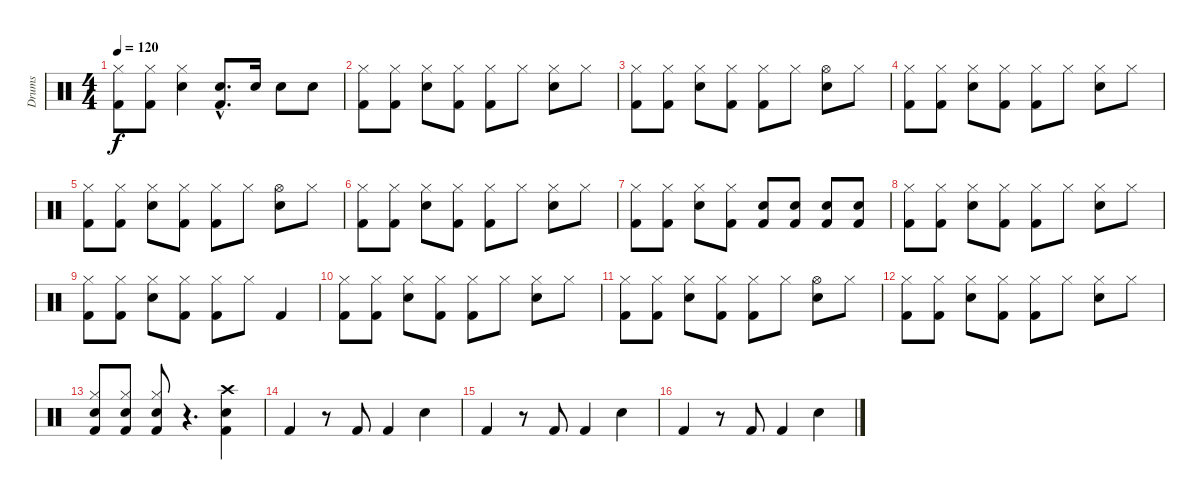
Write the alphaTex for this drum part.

\track ("Drums " "Drums ") {instrument percussion}
\staff {score}
\articulation defaults
\ts (4 4)
\tempo 120
\clef neutral
\ks c
("Kick (hit) 2" "Hi-Hat (closed)").8{dy f} ("Kick (hit) 2" "Hi-Hat (closed)").8 ("Electric Snare (hit)" "Hi-Hat (closed)").4 ("Kick (hit) 2"{hac} "Electric Snare (hit)"{hac}).8{d} "Electric Snare (hit)".16 "Electric Snare (hit)".8 "Electric Snare (hit)".8 |
("Kick (hit) 2" "Hi-Hat (closed)").8 ("Kick (hit) 2" "Hi-Hat (closed)").8 ("Electric Snare (hit)" "Hi-Hat (closed)").8 ("Kick (hit) 2" "Hi-Hat (closed)").8 ("Kick (hit) 2" "Hi-Hat (closed)").8 "Hi-Hat (closed)".8 ("Electric Snare (hit)" "Hi-Hat (closed)").8 "Hi-Hat (closed)".8 |
("Kick (hit) 2" "Hi-Hat (closed)").8 ("Kick (hit) 2" "Hi-Hat (closed)").8 ("Electric Snare (hit)" "Hi-Hat (closed)").8 ("Kick (hit) 2" "Hi-Hat (closed)").8 ("Kick (hit) 2" "Hi-Hat (closed)").8 "Hi-Hat (closed)".8 ("Electric Snare (hit)" "Hi-Hat (open)").8 "Hi-Hat (closed)".8 |
("Kick (hit) 2" "Hi-Hat (closed)").8 ("Kick (hit) 2" "Hi-Hat (closed)").8 ("Electric Snare (hit)" "Hi-Hat (closed)").8 ("Kick (hit) 2" "Hi-Hat (closed)").8 ("Kick (hit) 2" "Hi-Hat (closed)").8 "Hi-Hat (closed)".8 ("Electric Snare (hit)" "Hi-Hat (closed)").8 "Hi-Hat (closed)".8 |
("Kick (hit) 2" "Hi-Hat (closed)").8 ("Kick (hit) 2" "Hi-Hat (closed)").8 ("Electric Snare (hit)" "Hi-Hat (closed)").8 ("Kick (hit) 2" "Hi-Hat (closed)").8 ("Kick (hit) 2" "Hi-Hat (closed)").8 "Hi-Hat (closed)".8 ("Electric Snare (hit)" "Hi-Hat (open)").8 "Hi-Hat (closed)".8 |
("Kick (hit) 2" "Hi-Hat (closed)").8 ("Kick (hit) 2" "Hi-Hat (closed)").8 ("Electric Snare (hit)" "Hi-Hat (closed)").8 ("Kick (hit) 2" "Hi-Hat (closed)").8 ("Kick (hit) 2" "Hi-Hat (closed)").8 "Hi-Hat (closed)".8 ("Electric Snare (hit)" "Hi-Hat (closed)").8 "Hi-Hat (closed)".8 |
("Hi-Hat (closed)" "Kick (hit) 2").8 ("Hi-Hat (closed)" "Kick (hit) 2").8 ("Hi-Hat (closed)" "Electric Snare (hit)").8 ("Hi-Hat (closed)" "Kick (hit) 2").8 ("Electric Snare (hit)" "Kick (hit) 2").8 ("Electric Snare (hit)" "Kick (hit) 2").8 ("Electric Snare (hit)" "Kick (hit) 2").8 ("Electric Snare (hit)" "Kick (hit) 2").8 |
("Kick (hit) 2" "Hi-Hat (closed)").8 ("Kick (hit) 2" "Hi-Hat (closed)").8 ("Electric Snare (hit)" "Hi-Hat (closed)").8 ("Kick (hit) 2" "Hi-Hat (closed)").8 ("Kick (hit) 2" "Hi-Hat (closed)").8 "Hi-Hat (closed)".8 ("Electric Snare (hit)" "Hi-Hat (closed)").8 "Hi-Hat (closed)".8 |
("Kick (hit) 2" "Hi-Hat (closed)").8 ("Kick (hit) 2" "Hi-Hat (closed)").8 ("Electric Snare (hit)" "Hi-Hat (closed)").8 ("Kick (hit) 2" "Hi-Hat (closed)").8 ("Kick (hit) 2" "Hi-Hat (closed)").8 "Hi-Hat (closed)".8 "Kick (hit) 2".4 |
("Kick (hit) 2" "Hi-Hat (closed)").8 ("Kick (hit) 2" "Hi-Hat (closed)").8 ("Electric Snare (hit)" "Hi-Hat (closed)").8 ("Kick (hit) 2" "Hi-Hat (closed)").8 ("Kick (hit) 2" "Hi-Hat (closed)").8 "Hi-Hat (closed)".8 ("Electric Snare (hit)" "Hi-Hat (closed)").8 "Hi-Hat (closed)".8 |
("Kick (hit) 2" "Hi-Hat (closed)").8 ("Kick (hit) 2" "Hi-Hat (closed)").8 ("Electric Snare (hit)" "Hi-Hat (closed)").8 ("Kick (hit) 2" "Hi-Hat (closed)").8 ("Kick (hit) 2" "Hi-Hat (closed)").8 "Hi-Hat (closed)".8 ("Electric Snare (hit)" "Hi-Hat (open)").8 "Hi-Hat (closed)".8 |
("Kick (hit) 2" "Hi-Hat (closed)").8 ("Kick (hit) 2" "Hi-Hat (closed)").8 ("Electric Snare (hit)" "Hi-Hat (closed)").8 ("Kick (hit) 2" "Hi-Hat (closed)").8 ("Kick (hit) 2" "Hi-Hat (closed)").8 "Hi-Hat (closed)".8 ("Electric Snare (hit)" "Hi-Hat (closed)").8 "Hi-Hat (closed)".8 |
("Kick (hit) 2" "Electric Snare (hit)" "Hi-Hat (closed)").8 ("Kick (hit) 2" "Electric Snare (hit)" "Hi-Hat (closed)").8 ("Kick (hit) 2" "Electric Snare (hit)" "Hi-Hat (closed)").8 r.4{d} ("Crash high (hit)" "Kick (hit) 2" "Electric Snare (hit)").4 |
"Kick (hit) 2".4 r.8 "Kick (hit) 2".8 "Kick (hit) 2".4 "Electric Snare (hit)".4 |
"Kick (hit) 2".4 r.8 "Kick (hit) 2".8 "Kick (hit) 2".4 "Electric Snare (hit)".4 |
"Kick (hit) 2".4 r.8 "Kick (hit) 2".8 "Kick (hit) 2".4 "Electric Snare (hit)".4
